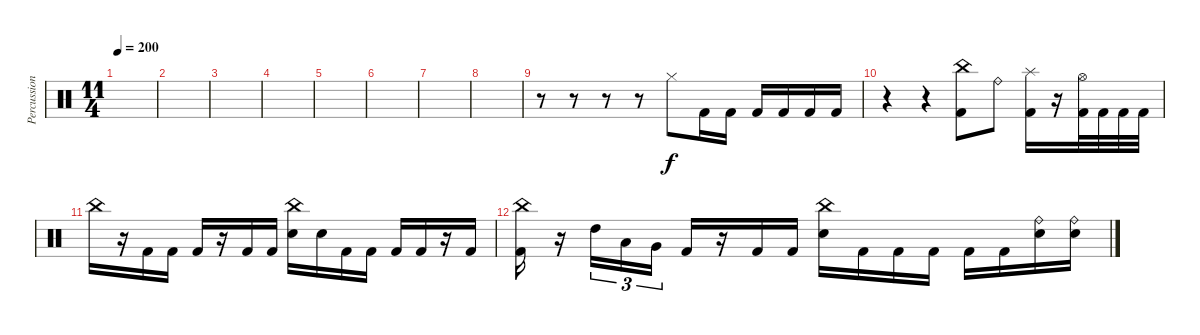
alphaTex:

\track ("Percussion" "Percussion") {instrument percussion}
\staff {score}
\articulation defaults
\ts (11 4)
\tempo 200
\clef neutral
\ks c
|
|
|
|
|
|
|
|
r.8 r.8 r.8 r.8 "Hi-Hat (closed)".8 "Kick (hit) 2".16 "Kick (hit) 2".16 "Kick (hit) 2".16 "Kick (hit) 2".16 "Kick (hit) 2".16 "Kick (hit) 2".16 |
r.4 r.4 ("China (hit)" "Kick (hit) 2").8 "Ride (bell)".8 ("Splash (hit)" "Kick (hit) 2").16 r.16 ("Hi-Hat (open)" "Kick (hit) 2").32 "Kick (hit) 2".32 "Kick (hit) 2".32 "Kick (hit) 2".32 |
"China (hit)".16 r.16 "Kick (hit) 2".16 "Kick (hit) 2".16 "Kick (hit) 2".16 r.16 "Kick (hit) 2".16 "Kick (hit) 2".16 ("China (hit)" "Electric Snare (hit)").16 "Electric Snare (hit)".16 "Kick (hit) 2".16 "Kick (hit) 2".16 "Kick (hit) 2".16 "Kick (hit) 2".16 r.16 "Kick (hit) 2".16 |
("Kick (hit) 2" "China (hit)").16 r.16 "High Tom (hit)".16{tu (3 2)} "Low Tom (hit)".16{tu (3 2)} "Very Low Tom (hit)".16{tu (3 2)} "Kick (hit) 2".16 r.16 "Kick (hit) 2".16 "Kick (hit) 2".16 ("China (hit)" "Electric Snare (hit)").16 "Kick (hit) 2".16 "Kick (hit) 2".16 "Kick (hit) 2".16 "Kick (hit) 2".16 "Kick (hit) 2".16 ("Ride (bell)" "Electric Snare (hit)").16 ("Ride (bell)" "Electric Snare (hit)").16
